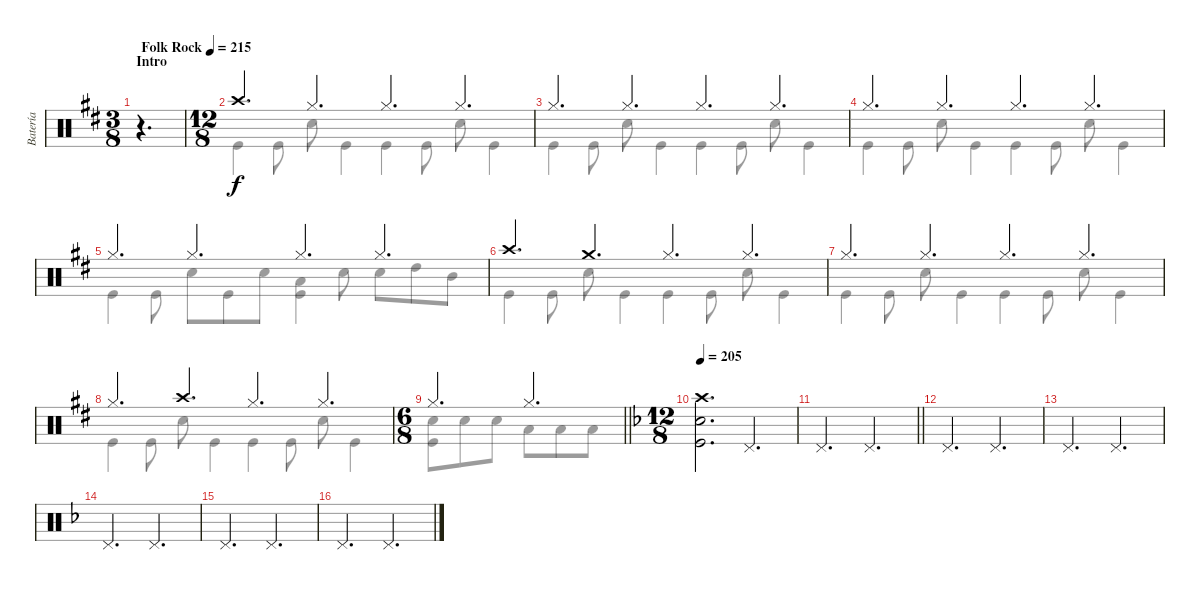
\track ("Batería" "Batería") {instrument percussion}
\staff {score}
\articulation defaults
\voice
\ts (3 8)
\section ("" "Intro")
\tempo (215 "Folk Rock")
\clef neutral
\ks d
r.4{d dy f} |
\ts (12 8)
"Crash high (hit)".4{d} "Hi-Hat (closed)".4{d} "Hi-Hat (closed)".4{d} "Hi-Hat (closed)".4{d} |
"Hi-Hat (closed)".4{d} "Hi-Hat (closed)".4{d} "Hi-Hat (closed)".4{d} "Hi-Hat (closed)".4{d} |
"Hi-Hat (closed)".4{d} "Hi-Hat (closed)".4{d} "Hi-Hat (closed)".4{d} "Hi-Hat (closed)".4{d} |
"Hi-Hat (closed)".4{d} "Hi-Hat (closed)".4{d} "Hi-Hat (closed)".4{d} "Hi-Hat (closed)".4{d} |
"Crash high (hit)".4{d} "Crash medium (hit)".4{d} "Hi-Hat (closed)".4{d} "Hi-Hat (closed)".4{d} |
"Hi-Hat (closed)".4{d} "Hi-Hat (closed)".4{d} "Hi-Hat (closed)".4{d} "Hi-Hat (closed)".4{d} |
"Hi-Hat (closed)".4{d} "Crash high (hit)".4{d} "Hi-Hat (closed)".4{d} "Hi-Hat (closed)".4{d} |
\ts (6 8)
\barLineRight lightlight "Hi-Hat (closed)".4{d} "Hi-Hat (closed)".4{d}
|
\ts (12 8)
\tempo 205
\ks dminor
("Crash high (hit)" "Snare (hit) 2" "Kick (hit)").2{d} "Pedal Hi-Hat (hit)".2{d} |
\barLineRight lightlight "Pedal Hi-Hat (hit)".2{d} "Pedal Hi-Hat (hit)".2{d}
|
"Pedal Hi-Hat (hit)".2{d} "Pedal Hi-Hat (hit)".2{d} |
"Pedal Hi-Hat (hit)".2{d} "Pedal Hi-Hat (hit)".2{d} |
"Pedal Hi-Hat (hit)".2{d} "Pedal Hi-Hat (hit)".2{d} |
"Pedal Hi-Hat (hit)".2{d} "Pedal Hi-Hat (hit)".2{d} |
"Pedal Hi-Hat (hit)".2{d} "Pedal Hi-Hat (hit)".2{d}
\voice
\clef neutral
\ottava regular
\simile none
\ks d
|
"Kick (hit)".4 "Kick (hit)".8 "Snare (hit) 2".8 "Kick (hit)".4 "Kick (hit)".4 "Kick (hit)".8 "Snare (hit) 2".8 "Kick (hit)".4 |
"Kick (hit)".4 "Kick (hit)".8 "Snare (hit) 2".8 "Kick (hit)".4 "Kick (hit)".4 "Kick (hit)".8 "Snare (hit) 2".8 "Kick (hit)".4 |
"Kick (hit)".4 "Kick (hit)".8 "Snare (hit) 2".8 "Kick (hit)".4 "Kick (hit)".4 "Kick (hit)".8 "Snare (hit) 2".8 "Kick (hit)".4 |
"Kick (hit)".4 "Kick (hit)".8 "Snare (hit) 2".8 "Kick (hit)".8 "Snare (hit) 2".8 ("Low Tom (hit)" "Kick (hit)").4 "Snare (hit) 2".8 "Snare (hit) 2".8 "High Tom (hit)".8 "Mid Tom (hit)".8 |
"Kick (hit)".4 "Kick (hit)".8 "Snare (hit) 2".8 "Kick (hit)".4 "Kick (hit)".4 "Kick (hit)".8 "Snare (hit) 2".8 "Kick (hit)".4 |
"Kick (hit)".4 "Kick (hit)".8 "Snare (hit) 2".8 "Kick (hit)".4 "Kick (hit)".4 "Kick (hit)".8 "Snare (hit) 2".8 "Kick (hit)".4 |
"Kick (hit)".4 "Kick (hit)".8 "Snare (hit) 2".8 "Kick (hit)".4 "Kick (hit)".4 "Kick (hit)".8 "Snare (hit) 2".8 "Kick (hit)".4 |
\barLineRight lightlight
("Snare (hit) 2" "Kick (hit)").8 "Snare (hit) 2".8 "Snare (hit) 2".8 "Low Tom (hit)".8 "Low Tom (hit)".8 "Low Tom (hit)".8 |
\ks dminor
|
\barLineRight lightlight
|
|
|
|
|
